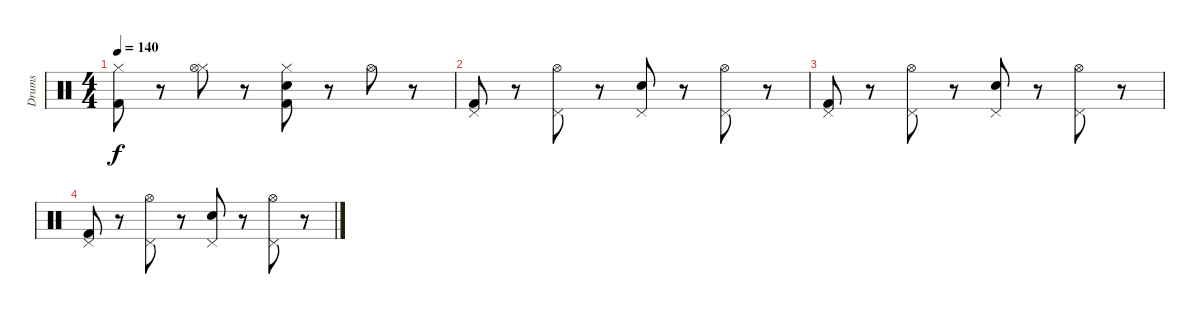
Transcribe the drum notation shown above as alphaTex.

\track ("Drums" "Drums") {instrument percussion}
\staff {score}
\articulation defaults
\ts (4 4)
\tempo 140
\clef neutral
\ks c
("Hi-Hat (closed)" "Kick (hit) 2").8{dy f} r.8 ("Hi-Hat (closed)" "Hi-Hat (open)").8 r.8 ("Kick (hit) 2" "Snare (hit) 2" "Hi-Hat (closed)").8 r.8 "Hi-Hat (open)".8 r.8 |
("Pedal Hi-Hat (hit)" "Kick (hit) 2").8 r.8 ("Pedal Hi-Hat (hit)" "Hi-Hat (open)").8 r.8 ("Pedal Hi-Hat (hit)" "Snare (hit) 2").8 r.8 ("Pedal Hi-Hat (hit)" "Hi-Hat (open)").8 r.8 |
("Pedal Hi-Hat (hit)" "Kick (hit) 2").8 r.8 ("Pedal Hi-Hat (hit)" "Hi-Hat (open)").8 r.8 ("Pedal Hi-Hat (hit)" "Snare (hit) 2").8 r.8 ("Pedal Hi-Hat (hit)" "Hi-Hat (open)").8 r.8 |
("Pedal Hi-Hat (hit)" "Kick (hit) 2").8 r.8 ("Pedal Hi-Hat (hit)" "Hi-Hat (open)").8 r.8 ("Pedal Hi-Hat (hit)" "Snare (hit) 2").8 r.8 ("Pedal Hi-Hat (hit)" "Hi-Hat (open)").8 r.8
